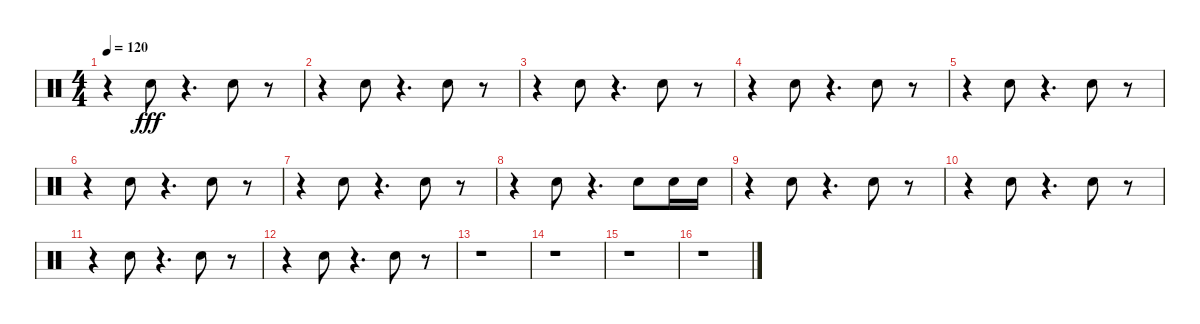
\track "" {instrument percussion}
\staff {score}
\articulation defaults
\ts (4 4)
\tempo 120
\clef neutral
\ks c
r.4{dy fff} "Hand Clap (hit)".8 r.4{d} "Hand Clap (hit)".8 r.8 |
r.4 "Hand Clap (hit)".8 r.4{d} "Hand Clap (hit)".8 r.8 |
r.4 "Hand Clap (hit)".8 r.4{d} "Hand Clap (hit)".8 r.8 |
r.4 "Hand Clap (hit)".8 r.4{d} "Hand Clap (hit)".8 r.8 |
r.4 "Hand Clap (hit)".8 r.4{d} "Hand Clap (hit)".8 r.8 |
r.4 "Hand Clap (hit)".8 r.4{d} "Hand Clap (hit)".8 r.8 |
r.4 "Hand Clap (hit)".8 r.4{d} "Hand Clap (hit)".8 r.8 |
r.4 "Hand Clap (hit)".8 r.4{d} "Hand Clap (hit)".8 "Hand Clap (hit)".16 "Hand Clap (hit)".16 |
r.4 "Hand Clap (hit)".8 r.4{d} "Hand Clap (hit)".8 r.8 |
r.4 "Hand Clap (hit)".8 r.4{d} "Hand Clap (hit)".8 r.8 |
r.4 "Hand Clap (hit)".8 r.4{d} "Hand Clap (hit)".8 r.8 |
r.4 "Hand Clap (hit)".8 r.4{d} "Hand Clap (hit)".8 r.8 |
r.1 |
r.1 |
r.1 |
r.1
